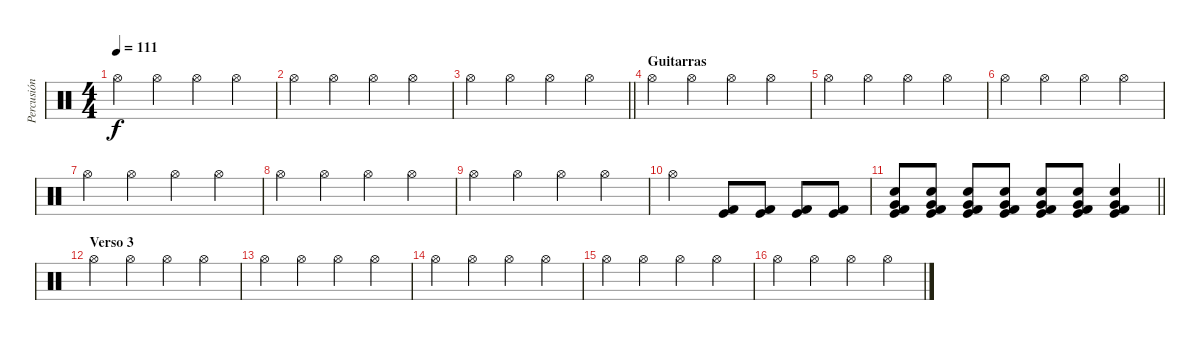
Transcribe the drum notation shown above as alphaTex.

\track ("Percusión" "Percusión") {instrument percussion}
\staff {score}
\articulation defaults
\ts (4 4)
\tempo 111
\clef neutral
\ks c "Hi-Hat (open)".4{dy f} "Hi-Hat (open)".4 "Hi-Hat (open)".4 "Hi-Hat (open)".4
|
"Hi-Hat (open)".4 "Hi-Hat (open)".4 "Hi-Hat (open)".4 "Hi-Hat (open)".4 |
\barLineRight lightlight "Hi-Hat (open)".4 "Hi-Hat (open)".4 "Hi-Hat (open)".4 "Hi-Hat (open)".4
|
\section ("" "Guitarras")
"Hi-Hat (open)".4 "Hi-Hat (open)".4 "Hi-Hat (open)".4 "Hi-Hat (open)".4 |
"Hi-Hat (open)".4 "Hi-Hat (open)".4 "Hi-Hat (open)".4 "Hi-Hat (open)".4 |
"Hi-Hat (open)".4 "Hi-Hat (open)".4 "Hi-Hat (open)".4 "Hi-Hat (open)".4 |
"Hi-Hat (open)".4 "Hi-Hat (open)".4 "Hi-Hat (open)".4 "Hi-Hat (open)".4 |
"Hi-Hat (open)".4 "Hi-Hat (open)".4 "Hi-Hat (open)".4 "Hi-Hat (open)".4 |
"Hi-Hat (open)".4 "Hi-Hat (open)".4 "Hi-Hat (open)".4 "Hi-Hat (open)".4 |
"Hi-Hat (open)".2 ("Kick (hit)" "Kick (hit) 2").8 ("Kick (hit)" "Kick (hit) 2").8 ("Kick (hit)" "Kick (hit) 2").8 ("Kick (hit)" "Kick (hit) 2").8 |
\barLineRight lightlight
("Kick (hit)" "Kick (hit) 2" "Very Low Tom (hit)" "Snare (hit) 2").8{volume 16} ("Kick (hit)" "Kick (hit) 2" "Very Low Tom (hit)" "Snare (hit) 2").8 ("Kick (hit)" "Kick (hit) 2" "Very Low Tom (hit)" "Snare (hit) 2").8 ("Kick (hit)" "Kick (hit) 2" "Very Low Tom (hit)" "Snare (hit) 2").8 ("Kick (hit)" "Kick (hit) 2" "Very Low Tom (hit)" "Snare (hit) 2").8 ("Kick (hit)" "Kick (hit) 2" "Very Low Tom (hit)" "Snare (hit) 2").8 ("Kick (hit)" "Kick (hit) 2" "Very Low Tom (hit)" "Snare (hit) 2").4 |
\section ("" "Verso 3")
"Hi-Hat (open)".4 "Hi-Hat (open)".4 "Hi-Hat (open)".4 "Hi-Hat (open)".4 |
"Hi-Hat (open)".4 "Hi-Hat (open)".4 "Hi-Hat (open)".4 "Hi-Hat (open)".4 |
"Hi-Hat (open)".4 "Hi-Hat (open)".4 "Hi-Hat (open)".4 "Hi-Hat (open)".4 |
"Hi-Hat (open)".4 "Hi-Hat (open)".4 "Hi-Hat (open)".4 "Hi-Hat (open)".4 |
"Hi-Hat (open)".4 "Hi-Hat (open)".4 "Hi-Hat (open)".4 "Hi-Hat (open)".4
